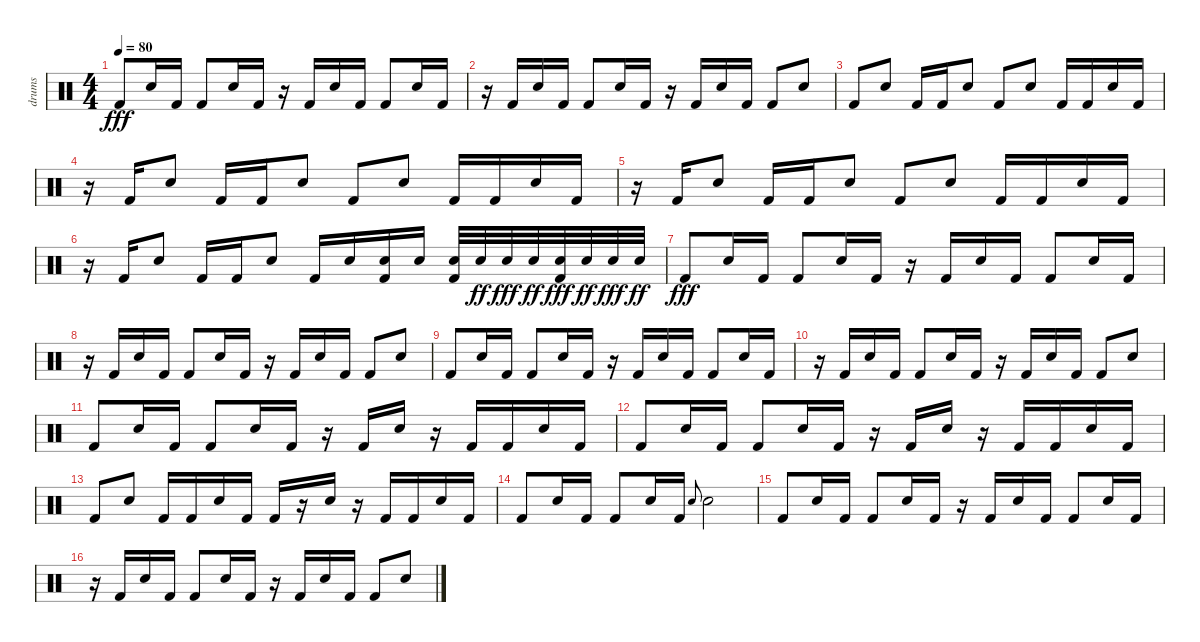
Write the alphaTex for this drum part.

\track ("drums" "drums") {instrument percussion}
\staff {score}
\articulation defaults
\ts (4 4)
\tempo 80
\clef neutral
\ks c "Kick (hit) 2".8{dy fff} "Electric Snare (hit)".16 "Kick (hit) 2".16 "Kick (hit) 2".8 "Electric Snare (hit)".16 "Kick (hit) 2".16
r.16 "Kick (hit) 2".16 "Electric Snare (hit)".16 "Kick (hit) 2".16 "Kick (hit) 2".8 "Electric Snare (hit)".16 "Kick (hit) 2".16 |
r.16 "Kick (hit) 2".16 "Electric Snare (hit)".16 "Kick (hit) 2".16 "Kick (hit) 2".8 "Electric Snare (hit)".16 "Kick (hit) 2".16 r.16 "Kick (hit) 2".16 "Electric Snare (hit)".16 "Kick (hit) 2".16 "Kick (hit) 2".8 "Electric Snare (hit)".8 |
"Kick (hit) 2".8 "Electric Snare (hit)".8 "Kick (hit) 2".16 "Kick (hit) 2".16 "Electric Snare (hit)".8 "Kick (hit) 2".8 "Electric Snare (hit)".8 "Kick (hit) 2".16 "Kick (hit) 2".16 "Electric Snare (hit)".16 "Kick (hit) 2".16 |
r.16 "Kick (hit) 2".16 "Electric Snare (hit)".8 "Kick (hit) 2".16 "Kick (hit) 2".16 "Electric Snare (hit)".8 "Kick (hit) 2".8 "Electric Snare (hit)".8 "Kick (hit) 2".16 "Kick (hit) 2".16 "Electric Snare (hit)".16 "Kick (hit) 2".16 |
r.16 "Kick (hit) 2".16 "Electric Snare (hit)".8 "Kick (hit) 2".16 "Kick (hit) 2".16 "Electric Snare (hit)".8 "Kick (hit) 2".8 "Electric Snare (hit)".8 "Kick (hit) 2".16 "Kick (hit) 2".16 "Electric Snare (hit)".16 "Kick (hit) 2".16 |
r.16 "Kick (hit) 2".16 "Electric Snare (hit)".8 "Kick (hit) 2".16 "Kick (hit) 2".16 "Electric Snare (hit)".8 "Kick (hit) 2".16 "Electric Snare (hit)".16 ("Electric Snare (hit)" "Kick (hit) 2").16 "Electric Snare (hit)".16 ("Electric Snare (hit)" "Kick (hit) 2").32 "Electric Snare (hit)".32{dy ff} "Electric Snare (hit)".32{dy fff} "Electric Snare (hit)".32{dy ff} ("Electric Snare (hit)" "Kick (hit) 2").32{dy fff} "Electric Snare (hit)".32{dy ff} "Electric Snare (hit)".32{dy fff} "Electric Snare (hit)".32{dy ff} |
"Kick (hit) 2".8{dy fff} "Electric Snare (hit)".16 "Kick (hit) 2".16 "Kick (hit) 2".8 "Electric Snare (hit)".16 "Kick (hit) 2".16 r.16 "Kick (hit) 2".16 "Electric Snare (hit)".16 "Kick (hit) 2".16 "Kick (hit) 2".8 "Electric Snare (hit)".16 "Kick (hit) 2".16 |
r.16 "Kick (hit) 2".16 "Electric Snare (hit)".16 "Kick (hit) 2".16 "Kick (hit) 2".8 "Electric Snare (hit)".16 "Kick (hit) 2".16 r.16 "Kick (hit) 2".16 "Electric Snare (hit)".16 "Kick (hit) 2".16 "Kick (hit) 2".8 "Electric Snare (hit)".8 |
"Kick (hit) 2".8 "Electric Snare (hit)".16 "Kick (hit) 2".16 "Kick (hit) 2".8 "Electric Snare (hit)".16 "Kick (hit) 2".16 r.16 "Kick (hit) 2".16 "Electric Snare (hit)".16 "Kick (hit) 2".16 "Kick (hit) 2".8 "Electric Snare (hit)".16 "Kick (hit) 2".16 |
r.16 "Kick (hit) 2".16 "Electric Snare (hit)".16 "Kick (hit) 2".16 "Kick (hit) 2".8 "Electric Snare (hit)".16 "Kick (hit) 2".16 r.16 "Kick (hit) 2".16 "Electric Snare (hit)".16 "Kick (hit) 2".16 "Kick (hit) 2".8 "Electric Snare (hit)".8 |
"Kick (hit) 2".8 "Electric Snare (hit)".16 "Kick (hit) 2".16 "Kick (hit) 2".8 "Electric Snare (hit)".16 "Kick (hit) 2".16 r.16 "Kick (hit) 2".16 "Electric Snare (hit)".16 r.16 "Kick (hit) 2".16 "Kick (hit) 2".16 "Electric Snare (hit)".16 "Kick (hit) 2".16 |
"Kick (hit) 2".8 "Electric Snare (hit)".16 "Kick (hit) 2".16 "Kick (hit) 2".8 "Electric Snare (hit)".16 "Kick (hit) 2".16 r.16 "Kick (hit) 2".16 "Electric Snare (hit)".16 r.16 "Kick (hit) 2".16 "Kick (hit) 2".16 "Electric Snare (hit)".16 "Kick (hit) 2".16 |
"Kick (hit) 2".8 "Electric Snare (hit)".8 "Kick (hit) 2".16 "Kick (hit) 2".16 "Electric Snare (hit)".16 "Kick (hit) 2".16 "Kick (hit) 2".16 r.16 "Electric Snare (hit)".16 r.16 "Kick (hit) 2".16 "Kick (hit) 2".16 "Electric Snare (hit)".16 "Kick (hit) 2".16 |
"Kick (hit) 2".8 "Electric Snare (hit)".16 "Kick (hit) 2".16 "Kick (hit) 2".8 "Electric Snare (hit)".16 "Kick (hit) 2".16 "Electric Snare (hit)".8{gr onbeat} "Electric Snare (hit)".2 |
"Kick (hit) 2".8 "Electric Snare (hit)".16 "Kick (hit) 2".16 "Kick (hit) 2".8 "Electric Snare (hit)".16 "Kick (hit) 2".16 r.16 "Kick (hit) 2".16 "Electric Snare (hit)".16 "Kick (hit) 2".16 "Kick (hit) 2".8 "Electric Snare (hit)".16 "Kick (hit) 2".16 |
r.16 "Kick (hit) 2".16 "Electric Snare (hit)".16 "Kick (hit) 2".16 "Kick (hit) 2".8 "Electric Snare (hit)".16 "Kick (hit) 2".16 r.16 "Kick (hit) 2".16 "Electric Snare (hit)".16 "Kick (hit) 2".16 "Kick (hit) 2".8 "Electric Snare (hit)".8
